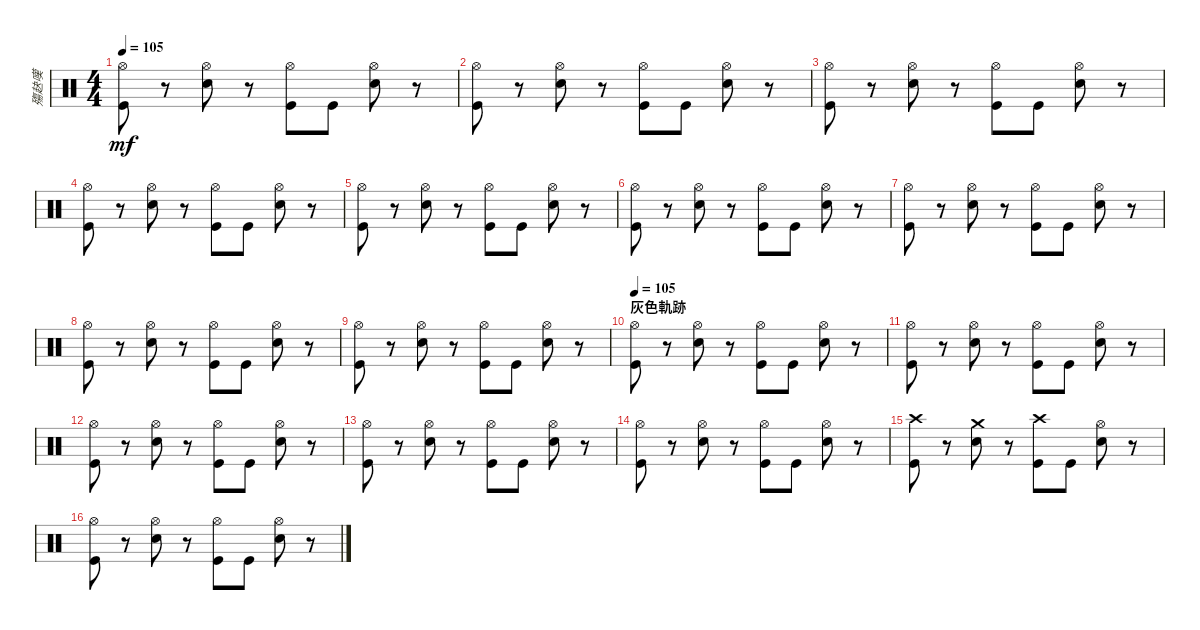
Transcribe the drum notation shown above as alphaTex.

\track ("殤赽嘆" "殤赽嘆") {instrument percussion}
\staff {score}
\articulation defaults
\ts (4 4)
\tempo 105
\clef neutral
\ks c
("Hi-Hat (open)" "Kick (hit)").8{dy mf} r.8 ("Hi-Hat (open)" "Snare (hit) 2").8 r.8 ("Hi-Hat (open)" "Kick (hit)").8 "Kick (hit)".8 ("Hi-Hat (open)" "Snare (hit) 2").8 r.8 |
("Hi-Hat (open)" "Kick (hit)").8 r.8 ("Hi-Hat (open)" "Snare (hit) 2").8 r.8 ("Hi-Hat (open)" "Kick (hit)").8 "Kick (hit)".8 ("Hi-Hat (open)" "Snare (hit) 2").8 r.8 |
("Hi-Hat (open)" "Kick (hit)").8 r.8 ("Hi-Hat (open)" "Snare (hit) 2").8 r.8 ("Hi-Hat (open)" "Kick (hit)").8 "Kick (hit)".8 ("Hi-Hat (open)" "Snare (hit) 2").8 r.8 |
("Hi-Hat (open)" "Kick (hit)").8 r.8 ("Hi-Hat (open)" "Snare (hit) 2").8 r.8 ("Hi-Hat (open)" "Kick (hit)").8 "Kick (hit)".8 ("Hi-Hat (open)" "Snare (hit) 2").8 r.8 |
("Hi-Hat (open)" "Kick (hit)").8 r.8 ("Hi-Hat (open)" "Snare (hit) 2").8 r.8 ("Hi-Hat (open)" "Kick (hit)").8 "Kick (hit)".8 ("Hi-Hat (open)" "Snare (hit) 2").8 r.8 |
("Hi-Hat (open)" "Kick (hit)").8 r.8 ("Hi-Hat (open)" "Snare (hit) 2").8 r.8 ("Hi-Hat (open)" "Kick (hit)").8 "Kick (hit)".8 ("Hi-Hat (open)" "Snare (hit) 2").8 r.8 |
("Hi-Hat (open)" "Kick (hit)").8 r.8 ("Hi-Hat (open)" "Snare (hit) 2").8 r.8 ("Hi-Hat (open)" "Kick (hit)").8 "Kick (hit)".8 ("Hi-Hat (open)" "Snare (hit) 2").8 r.8 |
("Hi-Hat (open)" "Kick (hit)").8 r.8 ("Hi-Hat (open)" "Snare (hit) 2").8 r.8 ("Hi-Hat (open)" "Kick (hit)").8 "Kick (hit)".8 ("Hi-Hat (open)" "Snare (hit) 2").8 r.8 |
("Hi-Hat (open)" "Kick (hit)").8 r.8 ("Hi-Hat (open)" "Snare (hit) 2").8 r.8 ("Hi-Hat (open)" "Kick (hit)").8 "Kick (hit)".8 ("Hi-Hat (open)" "Snare (hit) 2").8 r.8 |
\section ("" "灰色軌跡")
\tempo 105
("Hi-Hat (open)" "Kick (hit)").8 r.8 ("Hi-Hat (open)" "Snare (hit) 2").8 r.8 ("Hi-Hat (open)" "Kick (hit)").8 "Kick (hit)".8 ("Hi-Hat (open)" "Snare (hit) 2").8 r.8 |
("Hi-Hat (open)" "Kick (hit)").8 r.8 ("Hi-Hat (open)" "Snare (hit) 2").8 r.8 ("Hi-Hat (open)" "Kick (hit)").8 "Kick (hit)".8 ("Hi-Hat (open)" "Snare (hit) 2").8 r.8 |
("Hi-Hat (open)" "Kick (hit)").8 r.8 ("Hi-Hat (open)" "Snare (hit) 2").8 r.8 ("Hi-Hat (open)" "Kick (hit)").8 "Kick (hit)".8 ("Hi-Hat (open)" "Snare (hit) 2").8 r.8 |
("Hi-Hat (open)" "Kick (hit)").8 r.8 ("Hi-Hat (open)" "Snare (hit) 2").8 r.8 ("Hi-Hat (open)" "Kick (hit)").8 "Kick (hit)".8 ("Hi-Hat (open)" "Snare (hit) 2").8 r.8 |
("Hi-Hat (open)" "Kick (hit)").8 r.8 ("Hi-Hat (open)" "Snare (hit) 2").8 r.8 ("Hi-Hat (open)" "Kick (hit)").8 "Kick (hit)".8 ("Hi-Hat (open)" "Snare (hit) 2").8 r.8 |
("Crash high (hit)" "Kick (hit)").8 r.8 ("Crash medium (hit)" "Snare (hit) 2").8 r.8 ("Crash high (hit)" "Kick (hit)").8 "Kick (hit)".8 ("Hi-Hat (open)" "Snare (hit) 2").8 r.8 |
("Hi-Hat (open)" "Kick (hit)").8 r.8 ("Hi-Hat (open)" "Snare (hit) 2").8 r.8 ("Hi-Hat (open)" "Kick (hit)").8 "Kick (hit)".8 ("Hi-Hat (open)" "Snare (hit) 2").8 r.8
